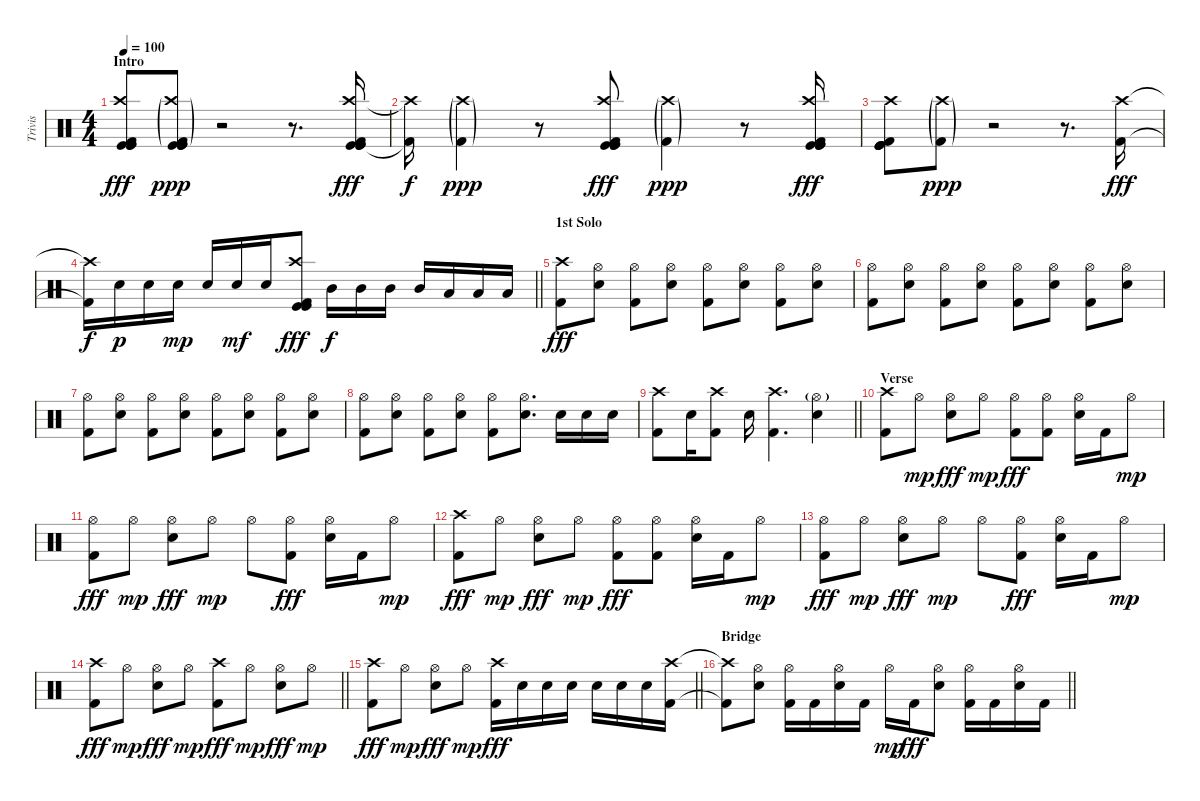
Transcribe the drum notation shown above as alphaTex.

\track ("Trivis" "Trivis") {instrument percussion}
\staff {score}
\articulation defaults
\ts (4 4)
\section ("" "Intro")
\tempo 100
\clef neutral
\ks c
("Kick (hit)" "Crash high (hit)" "Kick (hit)" "Kick (hit)" "Kick (hit) 2").8{dy fff} ("Kick (hit)" "Crash high (hit)"{g} "Kick (hit)" "Kick (hit)" "Kick (hit) 2"{g}).8{dy ppp volume 0} r.2 r.8{d volume 15} ("Crash high (hit)" "Kick (hit)" "Kick (hit)" "Kick (hit)" "Kick (hit) 2").16{dy fff} |
("Crash high (hit)"{t} "Kick (hit) 2"{t}).16{dy f} ("Crash high (hit)"{g} "Kick (hit) 2"{g}).4{dy ppp volume 0} r.8{volume 15} ("Crash high (hit)" "Kick (hit)" "Kick (hit)" "Kick (hit)" "Kick (hit) 2").8{dy fff} ("Crash high (hit)"{g} "Kick (hit) 2"{g}).4{dy ppp volume 0} r.8{volume 15} ("Crash high (hit)" "Kick (hit)" "Kick (hit)" "Kick (hit)" "Kick (hit) 2").16{dy fff} |
("Crash high (hit)" "Kick (hit)" "Kick (hit)" "Kick (hit)" "Kick (hit) 2").8 ("Crash high (hit)"{g} "Kick (hit) 2"{g}).8{dy ppp volume 0} r.2 r.8{d} ("Crash high (hit)" "Kick (hit) 2").16{dy fff volume 15} |
\barLineRight lightlight
("Crash high (hit)"{t} "Kick (hit) 2"{t}).16{dy f} "Electric Snare (hit)".16{dy p} "Electric Snare (hit)".16 "Electric Snare (hit)".16{dy mp} "Electric Snare (hit)".16 "Electric Snare (hit)".16{dy mf} "Electric Snare (hit)".16 ("Kick (hit)" "Crash high (hit)" "Kick (hit)" "Kick (hit) 2").8{dy fff} "Mid Tom (hit)".16{dy f} "Mid Tom (hit)".16 "Mid Tom (hit)".16 "Mid Tom (hit)".16 "Low Tom (hit)".16 "Low Tom (hit)".16 "Low Tom (hit)".16 |
\section ("" "1st Solo")
("Crash high (hit)" "Kick (hit) 2").8{dy fff} ("Hi-Hat (open)" "Snare (hit) 2").8 ("Hi-Hat (open)" "Kick (hit) 2").8 ("Hi-Hat (open)" "Snare (hit) 2").8 ("Hi-Hat (open)" "Kick (hit) 2").8 ("Hi-Hat (open)" "Snare (hit) 2").8 ("Hi-Hat (open)" "Kick (hit) 2").8 ("Hi-Hat (open)" "Snare (hit) 2").8 |
("Hi-Hat (open)" "Kick (hit) 2").8 ("Hi-Hat (open)" "Snare (hit) 2").8 ("Hi-Hat (open)" "Kick (hit) 2").8 ("Hi-Hat (open)" "Snare (hit) 2").8 ("Hi-Hat (open)" "Kick (hit) 2").8 ("Hi-Hat (open)" "Snare (hit) 2").8 ("Hi-Hat (open)" "Kick (hit) 2").8 ("Hi-Hat (open)" "Snare (hit) 2").8 |
("Hi-Hat (open)" "Kick (hit) 2").8 ("Hi-Hat (open)" "Snare (hit) 2").8 ("Hi-Hat (open)" "Kick (hit) 2").8 ("Hi-Hat (open)" "Snare (hit) 2").8 ("Hi-Hat (open)" "Kick (hit) 2").8 ("Hi-Hat (open)" "Snare (hit) 2").8 ("Hi-Hat (open)" "Kick (hit) 2").8 ("Hi-Hat (open)" "Snare (hit) 2").8 |
("Hi-Hat (open)" "Kick (hit) 2").8 ("Hi-Hat (open)" "Snare (hit) 2").8 ("Hi-Hat (open)" "Kick (hit) 2").8 ("Hi-Hat (open)" "Snare (hit) 2").8 ("Hi-Hat (open)" "Kick (hit) 2").8 ("Hi-Hat (open)" "Snare (hit) 2").8{d} "Snare (hit) 2".16 "Snare (hit) 2".16 "Snare (hit) 2".16 |
\barLineRight lightlight
("Crash high (hit)" "Kick (hit) 2").8 "Snare (hit) 2".16 ("Crash high (hit)" "Kick (hit) 2").8 "Snare (hit) 2".16 ("Crash high (hit)" "Kick (hit) 2").4{d} ("Hi-Hat (open)"{g} "Snare (hit) 2").4 |
\section ("" "Verse")
("Crash high (hit)" "Kick (hit) 2").8 "Hi-Hat (open)".8{dy mp} ("Hi-Hat (open)" "Snare (hit) 2").8{dy fff} "Hi-Hat (open)".8{dy mp} ("Hi-Hat (open)" "Kick (hit) 2").8{dy fff} ("Hi-Hat (open)" "Kick (hit) 2").8 ("Hi-Hat (open)" "Snare (hit) 2").16 "Kick (hit) 2".16 "Hi-Hat (open)".8{dy mp} |
("Hi-Hat (open)" "Kick (hit) 2").8{dy fff} "Hi-Hat (open)".8{dy mp} ("Hi-Hat (open)" "Snare (hit) 2").8{dy fff} "Hi-Hat (open)".8{dy mp} "Hi-Hat (open)".8 ("Hi-Hat (open)" "Kick (hit) 2").8{dy fff} ("Hi-Hat (open)" "Snare (hit) 2").16 "Kick (hit) 2".16 "Hi-Hat (open)".8{dy mp} |
("Crash high (hit)" "Kick (hit) 2").8{dy fff} "Hi-Hat (open)".8{dy mp} ("Hi-Hat (open)" "Snare (hit) 2").8{dy fff} "Hi-Hat (open)".8{dy mp} ("Hi-Hat (open)" "Kick (hit) 2").8{dy fff} ("Hi-Hat (open)" "Kick (hit) 2").8 ("Hi-Hat (open)" "Snare (hit) 2").16 "Kick (hit) 2".16 "Hi-Hat (open)".8{dy mp} |
("Hi-Hat (open)" "Kick (hit) 2").8{dy fff} "Hi-Hat (open)".8{dy mp} ("Hi-Hat (open)" "Snare (hit) 2").8{dy fff} "Hi-Hat (open)".8{dy mp} "Hi-Hat (open)".8 ("Hi-Hat (open)" "Kick (hit) 2").8{dy fff} ("Hi-Hat (open)" "Snare (hit) 2").16 "Kick (hit) 2".16 "Hi-Hat (open)".8{dy mp} |
\barLineRight lightlight
("Crash high (hit)" "Kick (hit) 2").8{dy fff} "Hi-Hat (open)".8{dy mp} ("Hi-Hat (open)" "Snare (hit) 2").8{dy fff} "Hi-Hat (open)".8{dy mp} ("Crash high (hit)" "Kick (hit) 2").8{dy fff} "Hi-Hat (open)".8{dy mp} ("Hi-Hat (open)" "Snare (hit) 2").8{dy fff} "Hi-Hat (open)".8{dy mp} |
\barLineRight lightlight
("Crash high (hit)" "Kick (hit) 2").8{dy fff} "Hi-Hat (open)".8{dy mp} ("Hi-Hat (open)" "Snare (hit) 2").8{dy fff} "Hi-Hat (open)".8{dy mp} ("Crash high (hit)" "Kick (hit) 2").16{dy fff} "Snare (hit) 2".16 "Snare (hit) 2".16 "Snare (hit) 2".16 "Snare (hit) 2".16 "Snare (hit) 2".16 "Snare (hit) 2".16 ("Crash high (hit)" "Kick (hit) 2").16 |
\section ("" "Bridge")
\barLineRight lightlight
("Crash high (hit)"{t} "Kick (hit) 2"{t}).8 ("Hi-Hat (open)" "Snare (hit) 2").8 ("Hi-Hat (open)" "Kick (hit) 2").16 "Kick (hit) 2".16 ("Hi-Hat (open)" "Snare (hit) 2").16 "Kick (hit) 2".16 "Hi-Hat (open)".16{dy mp} "Kick (hit) 2".16{dy fff} ("Hi-Hat (open)" "Snare (hit) 2").8 ("Hi-Hat (open)" "Kick (hit) 2").16 "Kick (hit) 2".16 ("Hi-Hat (open)" "Snare (hit) 2").16 "Kick (hit) 2".16
